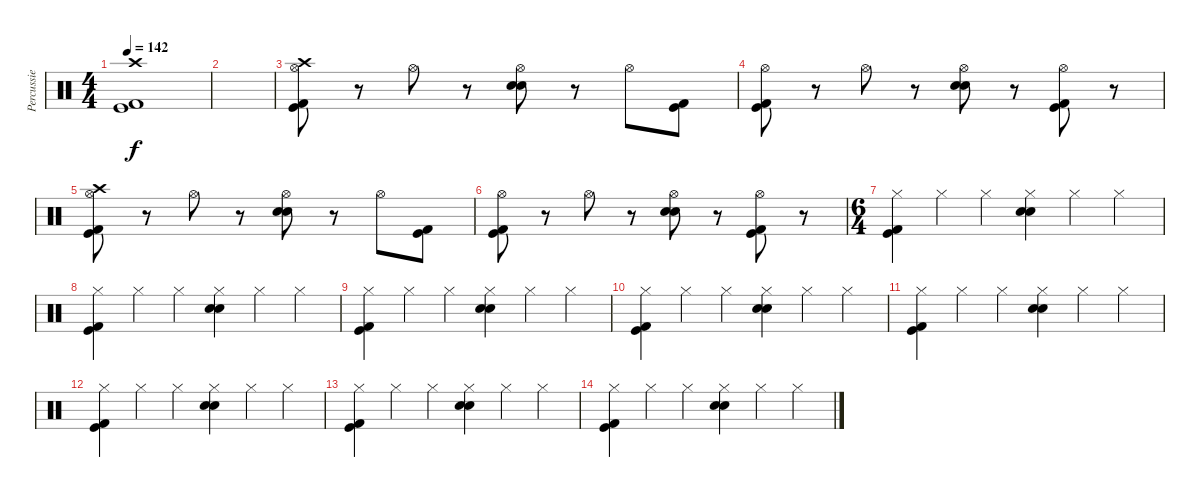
\track ("Percussie" "Percussie") {instrument percussion}
\staff {score}
\articulation defaults
\ts (4 4)
\tempo 142
\clef neutral
\ks c
("Kick (hit) 2" "Kick (hit)" "Crash high (hit)").1{dy f} |
|
("Kick (hit) 2" "Kick (hit)" "Hi-Hat (open)" "Crash high (hit)").8 r.8 "Hi-Hat (open)".8 r.8 ("Electric Snare (hit)" "Snare (hit) 2" "Hi-Hat (open)").8 r.8 "Hi-Hat (open)".8 ("Kick (hit) 2" "Kick (hit)").8 |
("Kick (hit) 2" "Kick (hit)" "Hi-Hat (open)").8 r.8 "Hi-Hat (open)".8 r.8 ("Electric Snare (hit)" "Snare (hit) 2" "Hi-Hat (open)").8 r.8 ("Kick (hit)" "Kick (hit) 2" "Hi-Hat (open)").8 r.8 |
("Kick (hit) 2" "Kick (hit)" "Hi-Hat (open)" "Crash high (hit)").8 r.8 "Hi-Hat (open)".8 r.8 ("Electric Snare (hit)" "Snare (hit) 2" "Hi-Hat (open)").8 r.8 "Hi-Hat (open)".8 ("Kick (hit) 2" "Kick (hit)").8 |
("Kick (hit) 2" "Kick (hit)" "Hi-Hat (open)").8 r.8 "Hi-Hat (open)".8 r.8 ("Electric Snare (hit)" "Snare (hit) 2" "Hi-Hat (open)").8 r.8 ("Kick (hit)" "Kick (hit) 2" "Hi-Hat (open)").8 r.8 |
\ts (6 4)
("Kick (hit) 2" "Hi-Hat (closed)" "Kick (hit)").4 "Hi-Hat (closed)".4 "Hi-Hat (closed)".4 ("Electric Snare (hit)" "Hi-Hat (closed)" "Snare (hit) 2").4 "Hi-Hat (closed)".4 "Hi-Hat (closed)".4 |
("Kick (hit) 2" "Hi-Hat (closed)" "Kick (hit)").4 "Hi-Hat (closed)".4 "Hi-Hat (closed)".4 ("Electric Snare (hit)" "Hi-Hat (closed)" "Snare (hit) 2").4 "Hi-Hat (closed)".4 "Hi-Hat (closed)".4 |
("Kick (hit) 2" "Hi-Hat (closed)" "Kick (hit)").4 "Hi-Hat (closed)".4 "Hi-Hat (closed)".4 ("Electric Snare (hit)" "Hi-Hat (closed)" "Snare (hit) 2").4 "Hi-Hat (closed)".4 "Hi-Hat (closed)".4 |
("Kick (hit) 2" "Hi-Hat (closed)" "Kick (hit)").4 "Hi-Hat (closed)".4 "Hi-Hat (closed)".4 ("Electric Snare (hit)" "Hi-Hat (closed)" "Snare (hit) 2").4 "Hi-Hat (closed)".4 "Hi-Hat (closed)".4 |
("Kick (hit) 2" "Hi-Hat (closed)" "Kick (hit)").4{volume 0} "Hi-Hat (closed)".4 "Hi-Hat (closed)".4 ("Electric Snare (hit)" "Hi-Hat (closed)" "Snare (hit) 2").4 "Hi-Hat (closed)".4 "Hi-Hat (closed)".4 |
("Kick (hit) 2" "Hi-Hat (closed)" "Kick (hit)").4 "Hi-Hat (closed)".4 "Hi-Hat (closed)".4 ("Electric Snare (hit)" "Hi-Hat (closed)" "Snare (hit) 2").4 "Hi-Hat (closed)".4 "Hi-Hat (closed)".4 |
("Kick (hit) 2" "Hi-Hat (closed)" "Kick (hit)").4 "Hi-Hat (closed)".4 "Hi-Hat (closed)".4 ("Electric Snare (hit)" "Hi-Hat (closed)" "Snare (hit) 2").4 "Hi-Hat (closed)".4 "Hi-Hat (closed)".4 |
("Kick (hit) 2" "Hi-Hat (closed)" "Kick (hit)").4 "Hi-Hat (closed)".4 "Hi-Hat (closed)".4 ("Electric Snare (hit)" "Hi-Hat (closed)" "Snare (hit) 2").4 "Hi-Hat (closed)".4 "Hi-Hat (closed)".4
